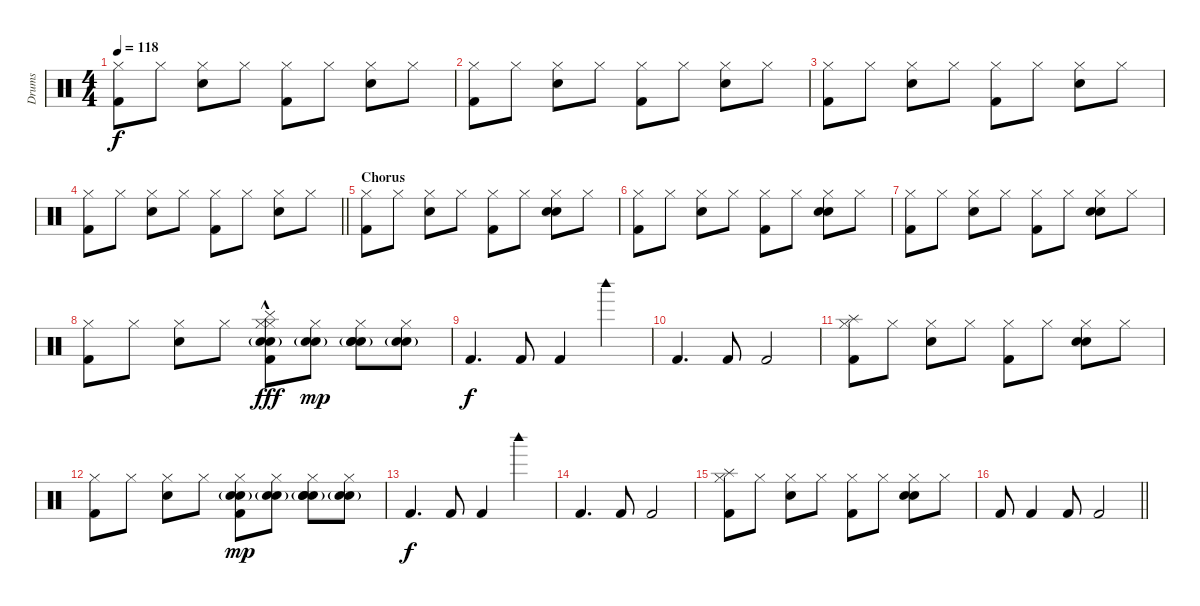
\track ("Drums" "Drums") {instrument percussion}
\staff {score}
\articulation defaults
\ts (4 4)
\tempo 118
\clef neutral
\ks c
("Hi-Hat (closed)" "Kick (hit) 2").8{dy f} "Hi-Hat (closed)".8 ("Hi-Hat (closed)" "Snare (hit) 2").8 "Hi-Hat (closed)".8 ("Hi-Hat (closed)" "Kick (hit) 2").8 "Hi-Hat (closed)".8 ("Hi-Hat (closed)" "Snare (hit) 2").8 "Hi-Hat (closed)".8 |
("Hi-Hat (closed)" "Kick (hit) 2").8 "Hi-Hat (closed)".8 ("Hi-Hat (closed)" "Snare (hit) 2").8 "Hi-Hat (closed)".8 ("Hi-Hat (closed)" "Kick (hit) 2").8 "Hi-Hat (closed)".8 ("Hi-Hat (closed)" "Snare (hit) 2").8 "Hi-Hat (closed)".8 |
("Hi-Hat (closed)" "Kick (hit) 2").8 "Hi-Hat (closed)".8 ("Hi-Hat (closed)" "Snare (hit) 2").8 "Hi-Hat (closed)".8 ("Hi-Hat (closed)" "Kick (hit) 2").8 "Hi-Hat (closed)".8 ("Hi-Hat (closed)" "Snare (hit) 2").8 "Hi-Hat (closed)".8 |
\barLineRight lightlight
("Hi-Hat (closed)" "Kick (hit) 2").8 "Hi-Hat (closed)".8 ("Hi-Hat (closed)" "Snare (hit) 2").8 "Hi-Hat (closed)".8 ("Hi-Hat (closed)" "Kick (hit) 2").8 "Hi-Hat (closed)".8 ("Hi-Hat (closed)" "Snare (hit) 2").8 "Hi-Hat (closed)".8 |
\section ("" "Chorus")
("Hi-Hat (closed)" "Kick (hit) 2").8 "Hi-Hat (closed)".8 ("Hi-Hat (closed)" "Snare (hit) 2").8 "Hi-Hat (closed)".8 ("Hi-Hat (closed)" "Kick (hit) 2").8 "Hi-Hat (closed)".8 ("Hi-Hat (closed)" "Hand Clap (hit)" "Snare (hit) 2").8 "Hi-Hat (closed)".8 |
("Hi-Hat (closed)" "Kick (hit) 2").8 "Hi-Hat (closed)".8 ("Hi-Hat (closed)" "Snare (hit) 2").8 "Hi-Hat (closed)".8 ("Hi-Hat (closed)" "Kick (hit) 2").8 "Hi-Hat (closed)".8 ("Hi-Hat (closed)" "Hand Clap (hit)" "Snare (hit) 2").8 "Hi-Hat (closed)".8 |
("Hi-Hat (closed)" "Kick (hit) 2").8 "Hi-Hat (closed)".8 ("Hi-Hat (closed)" "Snare (hit) 2").8 "Hi-Hat (closed)".8 ("Hi-Hat (closed)" "Kick (hit) 2").8 "Hi-Hat (closed)".8 ("Hi-Hat (closed)" "Hand Clap (hit)" "Snare (hit) 2").8 "Hi-Hat (closed)".8 |
("Hi-Hat (closed)" "Kick (hit) 2").8 "Hi-Hat (closed)".8 ("Hi-Hat (closed)" "Snare (hit) 2").8 "Hi-Hat (closed)".8 ("Hi-Hat (closed)" "Snare (hit) 2"{g} "Hand Clap (hit)" "Hi-Hat (closed)"{hac} "Cymbal (hit)" "Kick (hit) 2").8{dy fff} ("Hi-Hat (closed)" "Snare (hit) 2"{g} "Hand Clap (hit)").8{dy mp} ("Hi-Hat (closed)" "Snare (hit) 2"{g} "Hand Clap (hit)" "Snare (hit) 2").8 ("Hi-Hat (closed)" "Snare (hit) 2"{g} "Hand Clap (hit)").8 |
"Kick (hit) 2".4{d dy f} "Kick (hit) 2".8 "Kick (hit) 2".4 "Woodblock high (hit)".4 |
"Kick (hit) 2".4{d} "Kick (hit) 2".8 "Kick (hit) 2".2 |
("Splash (hit)" "Hi-Hat (closed)" "Kick (hit) 2").8 "Hi-Hat (closed)".8 ("Hi-Hat (closed)" "Snare (hit) 2").8 "Hi-Hat (closed)".8 ("Hi-Hat (closed)" "Kick (hit) 2").8 "Hi-Hat (closed)".8 ("Hi-Hat (closed)" "Hand Clap (hit)" "Snare (hit) 2").8 "Hi-Hat (closed)".8 |
("Hi-Hat (closed)" "Kick (hit) 2").8 "Hi-Hat (closed)".8 ("Hi-Hat (closed)" "Snare (hit) 2").8 "Hi-Hat (closed)".8 ("Hi-Hat (closed)" "Snare (hit) 2"{g} "Hand Clap (hit)" "Kick (hit) 2").8{dy mp} ("Hi-Hat (closed)" "Snare (hit) 2"{g} "Hand Clap (hit)").8 ("Hi-Hat (closed)" "Snare (hit) 2"{g} "Hand Clap (hit)" "Snare (hit) 2").8 ("Hi-Hat (closed)" "Snare (hit) 2"{g} "Hand Clap (hit)").8 |
"Kick (hit) 2".4{d dy f} "Kick (hit) 2".8 "Kick (hit) 2".4 "Woodblock high (hit)".4 |
"Kick (hit) 2".4{d} "Kick (hit) 2".8 "Kick (hit) 2".2 |
("Splash (hit)" "Hi-Hat (closed)" "Kick (hit) 2").8 "Hi-Hat (closed)".8 ("Hi-Hat (closed)" "Snare (hit) 2").8 "Hi-Hat (closed)".8 ("Hi-Hat (closed)" "Kick (hit) 2").8 "Hi-Hat (closed)".8 ("Hi-Hat (closed)" "Hand Clap (hit)" "Snare (hit) 2").8 "Hi-Hat (closed)".8 |
\barLineRight lightlight "Kick (hit) 2".8 "Kick (hit) 2".4 "Kick (hit) 2".8 "Kick (hit) 2".2
